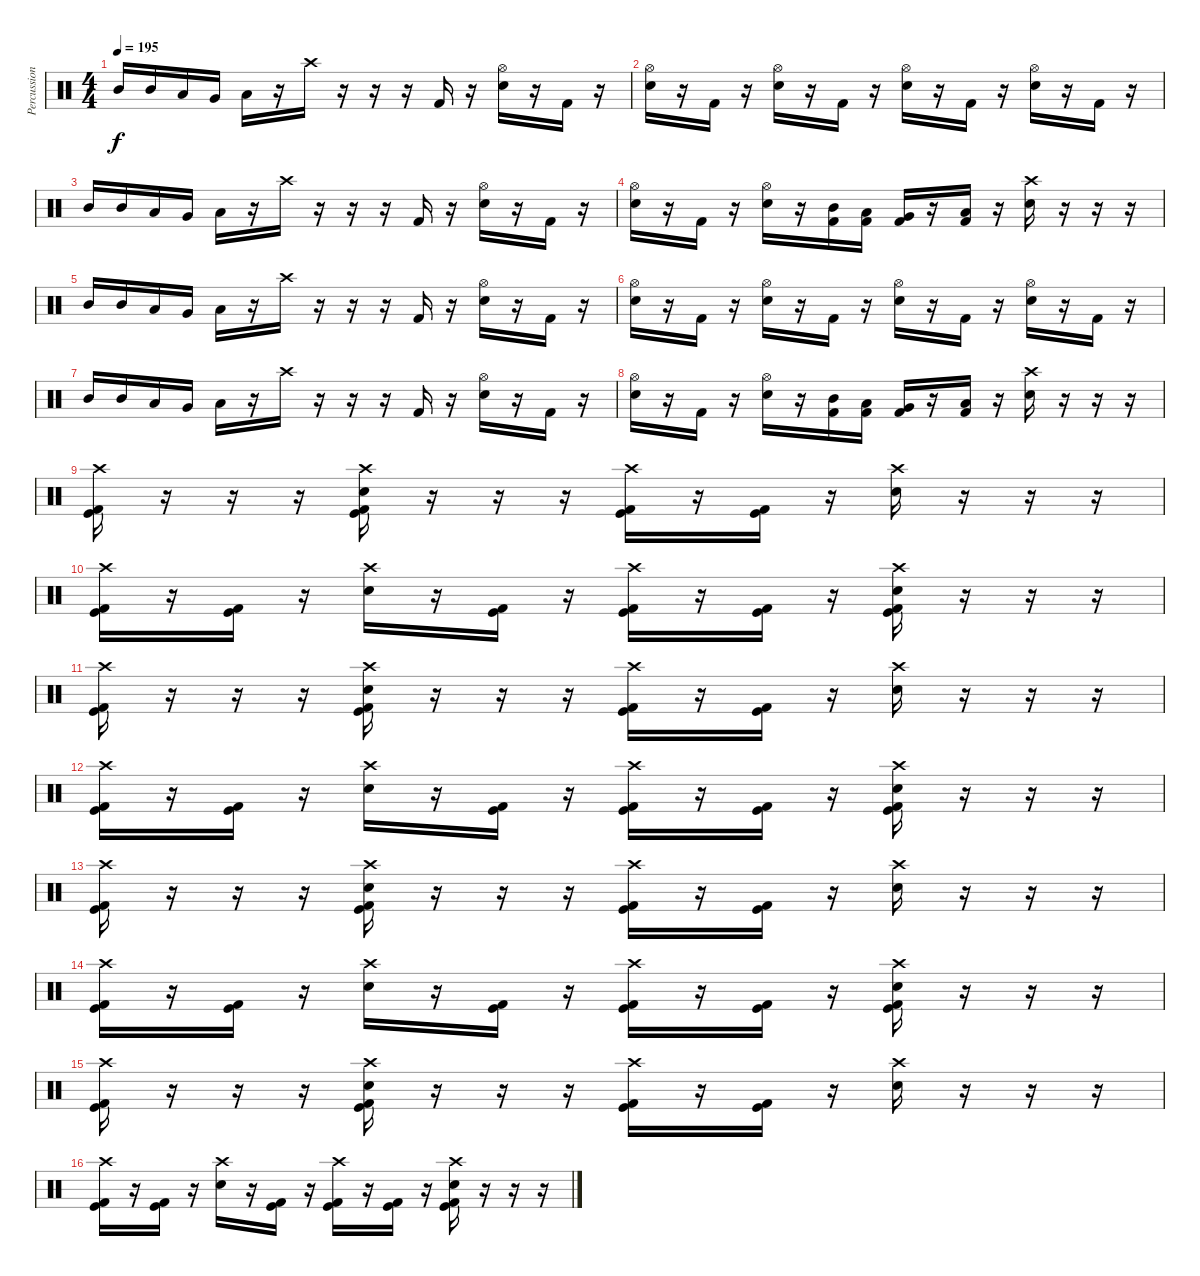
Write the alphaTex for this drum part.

\track ("Percussion" "Percussion") {instrument percussion}
\staff {score}
\articulation defaults
\ts (4 4)
\tempo 195
\clef neutral
\ks c "Mid Tom (hit)".16{dy f} "Mid Tom (hit)".16 "Low Tom (hit)".16 "Very Low Tom (hit)".16 "Low Floor Tom (hit)".16
r.16 "Crash high (hit)".16 r.16 r.16 r.16 "Kick (hit) 2".16 r.16 ("Hi-Hat (open)" "Snare (hit) 2").16 r.16 "Kick (hit) 2".16 r.16 |
("Hi-Hat (open)" "Snare (hit) 2").16 r.16 "Kick (hit) 2".16 r.16 ("Hi-Hat (open)" "Snare (hit) 2").16 r.16 "Kick (hit) 2".16 r.16 ("Hi-Hat (open)" "Snare (hit) 2").16 r.16 "Kick (hit) 2".16 r.16 ("Hi-Hat (open)" "Snare (hit) 2").16 r.16 "Kick (hit) 2".16 r.16 |
"Mid Tom (hit)".16 "Mid Tom (hit)".16 "Low Tom (hit)".16 "Very Low Tom (hit)".16 "Low Floor Tom (hit)".16 r.16 "Crash high (hit)".16 r.16 r.16 r.16 "Kick (hit) 2".16 r.16 ("Hi-Hat (open)" "Snare (hit) 2").16 r.16 "Kick (hit) 2".16 r.16 |
("Hi-Hat (open)" "Snare (hit) 2").16 r.16 "Kick (hit) 2".16 r.16 ("Hi-Hat (open)" "Snare (hit) 2").16 r.16 ("Mid Tom (hit)" "Kick (hit) 2").16 ("Low Tom (hit)" "Kick (hit) 2").16 ("Very Low Tom (hit)" "Kick (hit) 2").16 r.16 ("Low Floor Tom (hit)" "Kick (hit) 2").16 r.16 ("Crash high (hit)" "Electric Snare (hit)").16 r.16 r.16 r.16 |
"Mid Tom (hit)".16 "Mid Tom (hit)".16 "Low Tom (hit)".16 "Very Low Tom (hit)".16 "Low Floor Tom (hit)".16 r.16 "Crash high (hit)".16 r.16 r.16 r.16 "Kick (hit) 2".16 r.16 ("Hi-Hat (open)" "Snare (hit) 2").16 r.16 "Kick (hit) 2".16 r.16 |
("Hi-Hat (open)" "Snare (hit) 2").16 r.16 "Kick (hit) 2".16 r.16 ("Hi-Hat (open)" "Snare (hit) 2").16 r.16 "Kick (hit) 2".16 r.16 ("Hi-Hat (open)" "Snare (hit) 2").16 r.16 "Kick (hit) 2".16 r.16 ("Hi-Hat (open)" "Snare (hit) 2").16 r.16 "Kick (hit) 2".16 r.16 |
"Mid Tom (hit)".16 "Mid Tom (hit)".16 "Low Tom (hit)".16 "Very Low Tom (hit)".16 "Low Floor Tom (hit)".16 r.16 "Crash high (hit)".16 r.16 r.16 r.16 "Kick (hit) 2".16 r.16 ("Hi-Hat (open)" "Snare (hit) 2").16 r.16 "Kick (hit) 2".16 r.16 |
("Hi-Hat (open)" "Snare (hit) 2").16 r.16 "Kick (hit) 2".16 r.16 ("Hi-Hat (open)" "Snare (hit) 2").16 r.16 ("Mid Tom (hit)" "Kick (hit) 2").16 ("Low Tom (hit)" "Kick (hit) 2").16 ("Very Low Tom (hit)" "Kick (hit) 2").16 r.16 ("Low Floor Tom (hit)" "Kick (hit) 2").16 r.16 ("Crash high (hit)" "Electric Snare (hit)").16 r.16 r.16 r.16 |
("Crash high (hit)" "Kick (hit)" "Kick (hit) 2").16 r.16 r.16 r.16 ("Crash high (hit)" "Electric Snare (hit)" "Kick (hit)" "Kick (hit) 2").16 r.16 r.16 r.16 ("Crash high (hit)" "Kick (hit)" "Kick (hit) 2").16 r.16 ("Kick (hit)" "Kick (hit) 2").16 r.16 ("Crash high (hit)" "Electric Snare (hit)").16 r.16 r.16 r.16 |
("Crash high (hit)" "Kick (hit)" "Kick (hit) 2").16 r.16 ("Kick (hit)" "Kick (hit) 2").16 r.16 ("Crash high (hit)" "Electric Snare (hit)").16 r.16 ("Kick (hit)" "Kick (hit) 2").16 r.16 ("Crash high (hit)" "Kick (hit)" "Kick (hit) 2").16 r.16 ("Kick (hit)" "Kick (hit) 2").16 r.16 ("Crash high (hit)" "Electric Snare (hit)" "Kick (hit)" "Kick (hit) 2").16 r.16 r.16 r.16 |
("Crash high (hit)" "Kick (hit)" "Kick (hit) 2").16 r.16 r.16 r.16 ("Crash high (hit)" "Electric Snare (hit)" "Kick (hit)" "Kick (hit) 2").16 r.16 r.16 r.16 ("Crash high (hit)" "Kick (hit)" "Kick (hit) 2").16 r.16 ("Kick (hit)" "Kick (hit) 2").16 r.16 ("Crash high (hit)" "Electric Snare (hit)").16 r.16 r.16 r.16 |
("Crash high (hit)" "Kick (hit)" "Kick (hit) 2").16 r.16 ("Kick (hit)" "Kick (hit) 2").16 r.16 ("Crash high (hit)" "Electric Snare (hit)").16 r.16 ("Kick (hit)" "Kick (hit) 2").16 r.16 ("Crash high (hit)" "Kick (hit)" "Kick (hit) 2").16 r.16 ("Kick (hit)" "Kick (hit) 2").16 r.16 ("Crash high (hit)" "Electric Snare (hit)" "Kick (hit)" "Kick (hit) 2").16 r.16 r.16 r.16 |
("Crash high (hit)" "Kick (hit)" "Kick (hit) 2").16 r.16 r.16 r.16 ("Crash high (hit)" "Electric Snare (hit)" "Kick (hit)" "Kick (hit) 2").16 r.16 r.16 r.16 ("Crash high (hit)" "Kick (hit)" "Kick (hit) 2").16 r.16 ("Kick (hit)" "Kick (hit) 2").16 r.16 ("Crash high (hit)" "Electric Snare (hit)").16 r.16 r.16 r.16 |
("Crash high (hit)" "Kick (hit)" "Kick (hit) 2").16 r.16 ("Kick (hit)" "Kick (hit) 2").16 r.16 ("Crash high (hit)" "Electric Snare (hit)").16 r.16 ("Kick (hit)" "Kick (hit) 2").16 r.16 ("Crash high (hit)" "Kick (hit)" "Kick (hit) 2").16 r.16 ("Kick (hit)" "Kick (hit) 2").16 r.16 ("Crash high (hit)" "Electric Snare (hit)" "Kick (hit)" "Kick (hit) 2").16 r.16 r.16 r.16 |
("Crash high (hit)" "Kick (hit)" "Kick (hit) 2").16 r.16 r.16 r.16 ("Crash high (hit)" "Electric Snare (hit)" "Kick (hit)" "Kick (hit) 2").16 r.16 r.16 r.16 ("Crash high (hit)" "Kick (hit)" "Kick (hit) 2").16 r.16 ("Kick (hit)" "Kick (hit) 2").16 r.16 ("Crash high (hit)" "Electric Snare (hit)").16 r.16 r.16 r.16 |
("Crash high (hit)" "Kick (hit)" "Kick (hit) 2").16 r.16 ("Kick (hit)" "Kick (hit) 2").16 r.16 ("Crash high (hit)" "Electric Snare (hit)").16 r.16 ("Kick (hit)" "Kick (hit) 2").16 r.16 ("Crash high (hit)" "Kick (hit)" "Kick (hit) 2").16 r.16 ("Kick (hit)" "Kick (hit) 2").16 r.16 ("Crash high (hit)" "Electric Snare (hit)" "Kick (hit)" "Kick (hit) 2").16 r.16 r.16 r.16
